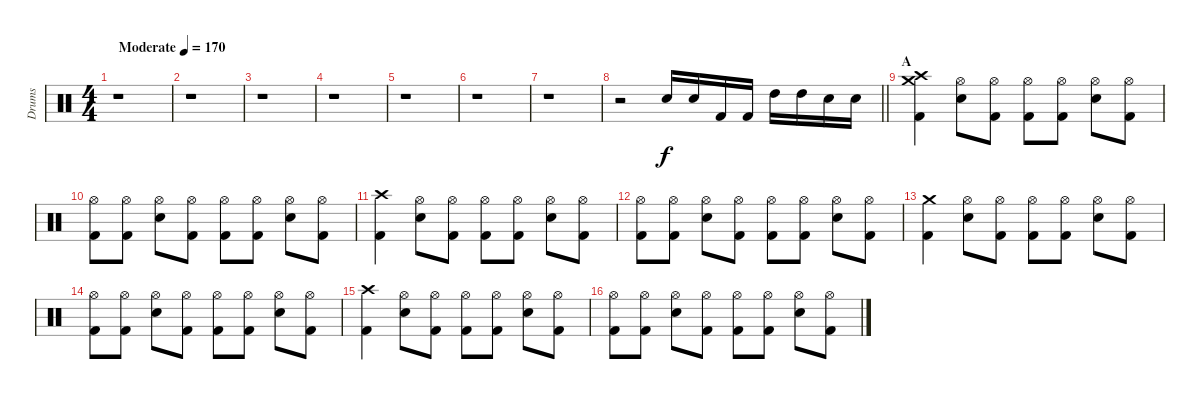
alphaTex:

\track ("Drums" "Drums") {instrument percussion}
\staff {score}
\articulation defaults
\ts (4 4)
\tempo (170 "Moderate")
\clef neutral
\ks c
r.1{dy f} |
r.1 |
r.1 |
r.1 |
r.1 |
r.1 |
r.1 |
\barLineRight lightlight
r.2 "Snare (hit) 2".16 "Snare (hit) 2".16 "Kick (hit) 2".16 "Kick (hit) 2".16 "High Tom (hit)".16 "High Tom (hit)".16 "Snare (hit) 2".16 "Snare (hit) 2".16 |
\section ("" "A")
("Kick (hit) 2" "Crash high (hit)" "Crash medium (hit)").4 ("Snare (hit) 2" "Hi-Hat (open)").8 ("Kick (hit) 2" "Hi-Hat (open)").8 ("Kick (hit) 2" "Hi-Hat (open)").8 ("Kick (hit) 2" "Hi-Hat (open)").8 ("Snare (hit) 2" "Hi-Hat (open)").8 ("Kick (hit) 2" "Hi-Hat (open)").8 |
("Kick (hit) 2" "Hi-Hat (open)").8 ("Kick (hit) 2" "Hi-Hat (open)").8 ("Snare (hit) 2" "Hi-Hat (open)").8 ("Kick (hit) 2" "Hi-Hat (open)").8 ("Kick (hit) 2" "Hi-Hat (open)").8 ("Kick (hit) 2" "Hi-Hat (open)").8 ("Snare (hit) 2" "Hi-Hat (open)").8 ("Kick (hit) 2" "Hi-Hat (open)").8 |
("Kick (hit) 2" "Crash high (hit)").4 ("Snare (hit) 2" "Hi-Hat (open)").8 ("Kick (hit) 2" "Hi-Hat (open)").8 ("Kick (hit) 2" "Hi-Hat (open)").8 ("Kick (hit) 2" "Hi-Hat (open)").8 ("Snare (hit) 2" "Hi-Hat (open)").8 ("Kick (hit) 2" "Hi-Hat (open)").8 |
("Kick (hit) 2" "Hi-Hat (open)").8 ("Kick (hit) 2" "Hi-Hat (open)").8 ("Snare (hit) 2" "Hi-Hat (open)").8 ("Kick (hit) 2" "Hi-Hat (open)").8 ("Kick (hit) 2" "Hi-Hat (open)").8 ("Kick (hit) 2" "Hi-Hat (open)").8 ("Snare (hit) 2" "Hi-Hat (open)").8 ("Kick (hit) 2" "Hi-Hat (open)").8 |
("Kick (hit) 2" "Crash medium (hit)").4 ("Snare (hit) 2" "Hi-Hat (open)").8 ("Kick (hit) 2" "Hi-Hat (open)").8 ("Kick (hit) 2" "Hi-Hat (open)").8 ("Kick (hit) 2" "Hi-Hat (open)").8 ("Snare (hit) 2" "Hi-Hat (open)").8 ("Kick (hit) 2" "Hi-Hat (open)").8 |
("Kick (hit) 2" "Hi-Hat (open)").8 ("Kick (hit) 2" "Hi-Hat (open)").8 ("Snare (hit) 2" "Hi-Hat (open)").8 ("Kick (hit) 2" "Hi-Hat (open)").8 ("Kick (hit) 2" "Hi-Hat (open)").8 ("Kick (hit) 2" "Hi-Hat (open)").8 ("Snare (hit) 2" "Hi-Hat (open)").8 ("Kick (hit) 2" "Hi-Hat (open)").8 |
("Kick (hit) 2" "Crash high (hit)").4 ("Snare (hit) 2" "Hi-Hat (open)").8 ("Kick (hit) 2" "Hi-Hat (open)").8 ("Kick (hit) 2" "Hi-Hat (open)").8 ("Kick (hit) 2" "Hi-Hat (open)").8 ("Snare (hit) 2" "Hi-Hat (open)").8 ("Kick (hit) 2" "Hi-Hat (open)").8 |
("Kick (hit) 2" "Hi-Hat (open)").8 ("Kick (hit) 2" "Hi-Hat (open)").8 ("Snare (hit) 2" "Hi-Hat (open)").8 ("Kick (hit) 2" "Hi-Hat (open)").8 ("Kick (hit) 2" "Hi-Hat (open)").8 ("Kick (hit) 2" "Hi-Hat (open)").8 ("Snare (hit) 2" "Hi-Hat (open)").8 ("Kick (hit) 2" "Hi-Hat (open)").8
